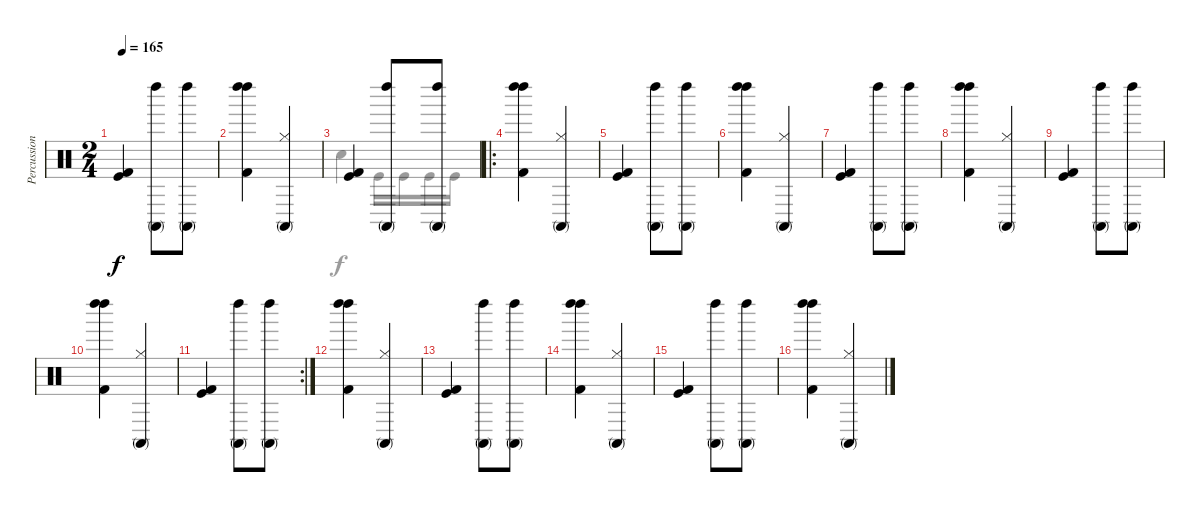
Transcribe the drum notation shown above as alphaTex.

\track ("Percussion" "Percussion") {instrument percussion}
\staff {score}
\articulation defaults
\voice
\ts (2 4)
\tempo 165
\clef neutral
\ks c
("Kick (hit)" "Kick (hit) 2").4{dy f} ("Conga high (mute)" "Left Maraca (hit)").8 ("Conga high (mute)" "Left Maraca (hit)").8 |
("Left Maraca (hit)" "Left Maraca (hit)" "Kick (hit) 2").4 ("Conga high (mute)" "Hi-Hat (closed)").4 |
("Kick (hit)" "Kick (hit) 2").4 ("Conga high (mute)" "Left Maraca (hit)").8 ("Conga high (mute)" "Left Maraca (hit)").8 |
\ro
("Left Maraca (hit)" "Left Maraca (hit)" "Kick (hit) 2").4 ("Conga high (mute)" "Hi-Hat (closed)").4 |
("Kick (hit)" "Kick (hit) 2").4 ("Conga high (mute)" "Left Maraca (hit)").8 ("Conga high (mute)" "Left Maraca (hit)").8 |
("Left Maraca (hit)" "Left Maraca (hit)" "Kick (hit) 2").4 ("Conga high (mute)" "Hi-Hat (closed)").4 |
("Kick (hit)" "Kick (hit) 2").4 ("Conga high (mute)" "Left Maraca (hit)").8 ("Conga high (mute)" "Left Maraca (hit)").8 |
("Left Maraca (hit)" "Left Maraca (hit)" "Kick (hit) 2").4 ("Conga high (mute)" "Hi-Hat (closed)").4 |
("Kick (hit)" "Kick (hit) 2").4 ("Conga high (mute)" "Left Maraca (hit)").8 ("Conga high (mute)" "Left Maraca (hit)").8 |
("Left Maraca (hit)" "Left Maraca (hit)" "Kick (hit) 2").4 ("Conga high (mute)" "Hi-Hat (closed)").4 |
\rc 2
("Kick (hit)" "Kick (hit) 2").4 ("Conga high (mute)" "Left Maraca (hit)").8 ("Conga high (mute)" "Left Maraca (hit)").8 |
("Left Maraca (hit)" "Left Maraca (hit)" "Kick (hit) 2").4 ("Conga high (mute)" "Hi-Hat (closed)").4 |
("Kick (hit)" "Kick (hit) 2").4 ("Conga high (mute)" "Left Maraca (hit)").8 ("Conga high (mute)" "Left Maraca (hit)").8 |
("Left Maraca (hit)" "Left Maraca (hit)" "Kick (hit) 2").4 ("Conga high (mute)" "Hi-Hat (closed)").4 |
("Kick (hit)" "Kick (hit) 2").4 ("Conga high (mute)" "Left Maraca (hit)").8 ("Conga high (mute)" "Left Maraca (hit)").8 |
("Left Maraca (hit)" "Left Maraca (hit)" "Kick (hit) 2").4 ("Conga high (mute)" "Hi-Hat (closed)").4
\voice
\clef neutral
\ottava regular
\simile none
\ks c
|
|
"Snare (hit)".4 "Kick (hit)".16 "Kick (hit)".16 "Kick (hit)".16 "Kick (hit)".16 |
|
|
|
|
|
|
|
|
|
|
|
|
